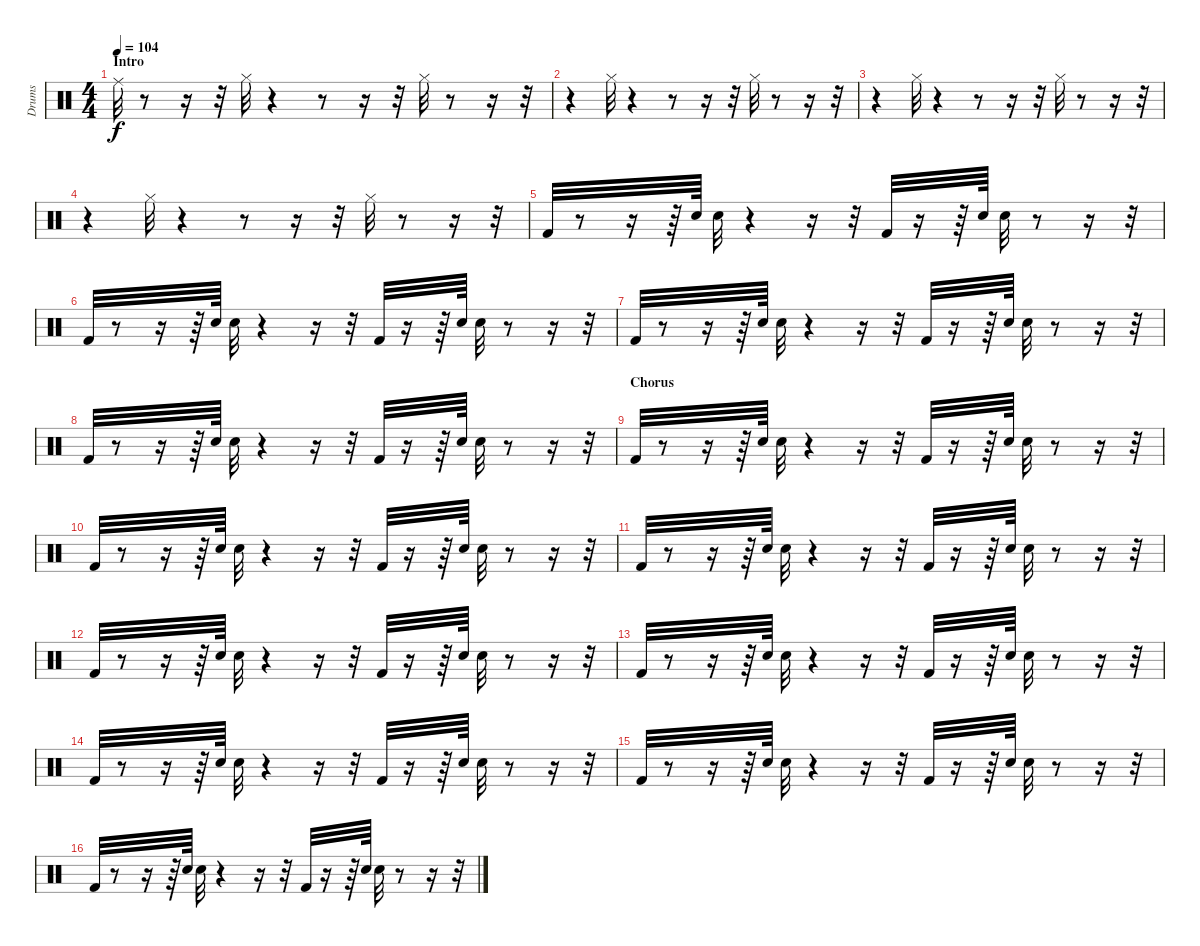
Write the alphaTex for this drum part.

\track ("Drums" "Drums") {instrument percussion}
\staff {score}
\articulation defaults
\ts (4 4)
\section ("" "Intro")
\tempo 104
\clef neutral
\ks c "Ride (middle)".32{dy f}
r.8 r.16 r.32 "Hi-Hat (closed)".32 r.4 r.8 r.16 r.32 "Hi-Hat (closed)".32 r.8 r.16 r.32 |
r.4 "Hi-Hat (closed)".32 r.4 r.8 r.16 r.32 "Hi-Hat (closed)".32 r.8 r.16 r.32 |
r.4 "Hi-Hat (closed)".32 r.4 r.8 r.16 r.32 "Hi-Hat (closed)".32 r.8 r.16 r.32 |
r.4 "Hi-Hat (closed)".32 r.4 r.8 r.16 r.32 "Hi-Hat (closed)".32 r.8 r.16 r.32 |
"Kick (hit) 2".32 r.8 r.16 r.64 "Snare (hit) 2".64 "Snare (hit) 2".32 r.4 r.16 r.32 "Kick (hit) 2".32 r.16 r.64 "Snare (hit) 2".64 "Snare (hit) 2".32 r.8 r.16 r.32 |
"Kick (hit) 2".32 r.8 r.16 r.64 "Snare (hit) 2".64 "Snare (hit) 2".32 r.4 r.16 r.32 "Kick (hit) 2".32 r.16 r.64 "Snare (hit) 2".64 "Snare (hit) 2".32 r.8 r.16 r.32 |
"Kick (hit) 2".32 r.8 r.16 r.64 "Snare (hit) 2".64 "Snare (hit) 2".32 r.4 r.16 r.32 "Kick (hit) 2".32 r.16 r.64 "Snare (hit) 2".64 "Snare (hit) 2".32 r.8 r.16 r.32 |
"Kick (hit) 2".32 r.8 r.16 r.64 "Snare (hit) 2".64 "Snare (hit) 2".32 r.4 r.16 r.32 "Kick (hit) 2".32 r.16 r.64 "Snare (hit) 2".64 "Snare (hit) 2".32 r.8 r.16 r.32 |
\section ("" "Chorus")
"Kick (hit) 2".32 r.8 r.16 r.64 "Snare (hit) 2".64 "Snare (hit) 2".32 r.4 r.16 r.32 "Kick (hit) 2".32 r.16 r.64 "Snare (hit) 2".64 "Snare (hit) 2".32 r.8 r.16 r.32 |
"Kick (hit) 2".32 r.8 r.16 r.64 "Snare (hit) 2".64 "Snare (hit) 2".32 r.4 r.16 r.32 "Kick (hit) 2".32 r.16 r.64 "Snare (hit) 2".64 "Snare (hit) 2".32 r.8 r.16 r.32 |
"Kick (hit) 2".32 r.8 r.16 r.64 "Snare (hit) 2".64 "Snare (hit) 2".32 r.4 r.16 r.32 "Kick (hit) 2".32 r.16 r.64 "Snare (hit) 2".64 "Snare (hit) 2".32 r.8 r.16 r.32 |
"Kick (hit) 2".32 r.8 r.16 r.64 "Snare (hit) 2".64 "Snare (hit) 2".32 r.4 r.16 r.32 "Kick (hit) 2".32 r.16 r.64 "Snare (hit) 2".64 "Snare (hit) 2".32 r.8 r.16 r.32 |
"Kick (hit) 2".32 r.8 r.16 r.64 "Snare (hit) 2".64 "Snare (hit) 2".32 r.4 r.16 r.32 "Kick (hit) 2".32 r.16 r.64 "Snare (hit) 2".64 "Snare (hit) 2".32 r.8 r.16 r.32 |
"Kick (hit) 2".32 r.8 r.16 r.64 "Snare (hit) 2".64 "Snare (hit) 2".32 r.4 r.16 r.32 "Kick (hit) 2".32 r.16 r.64 "Snare (hit) 2".64 "Snare (hit) 2".32 r.8 r.16 r.32 |
"Kick (hit) 2".32 r.8 r.16 r.64 "Snare (hit) 2".64 "Snare (hit) 2".32 r.4 r.16 r.32 "Kick (hit) 2".32 r.16 r.64 "Snare (hit) 2".64 "Snare (hit) 2".32 r.8 r.16 r.32 |
"Kick (hit) 2".32 r.8 r.16 r.64 "Snare (hit) 2".64 "Snare (hit) 2".32 r.4 r.16 r.32 "Kick (hit) 2".32 r.16 r.64 "Snare (hit) 2".64 "Snare (hit) 2".32 r.8 r.16 r.32
